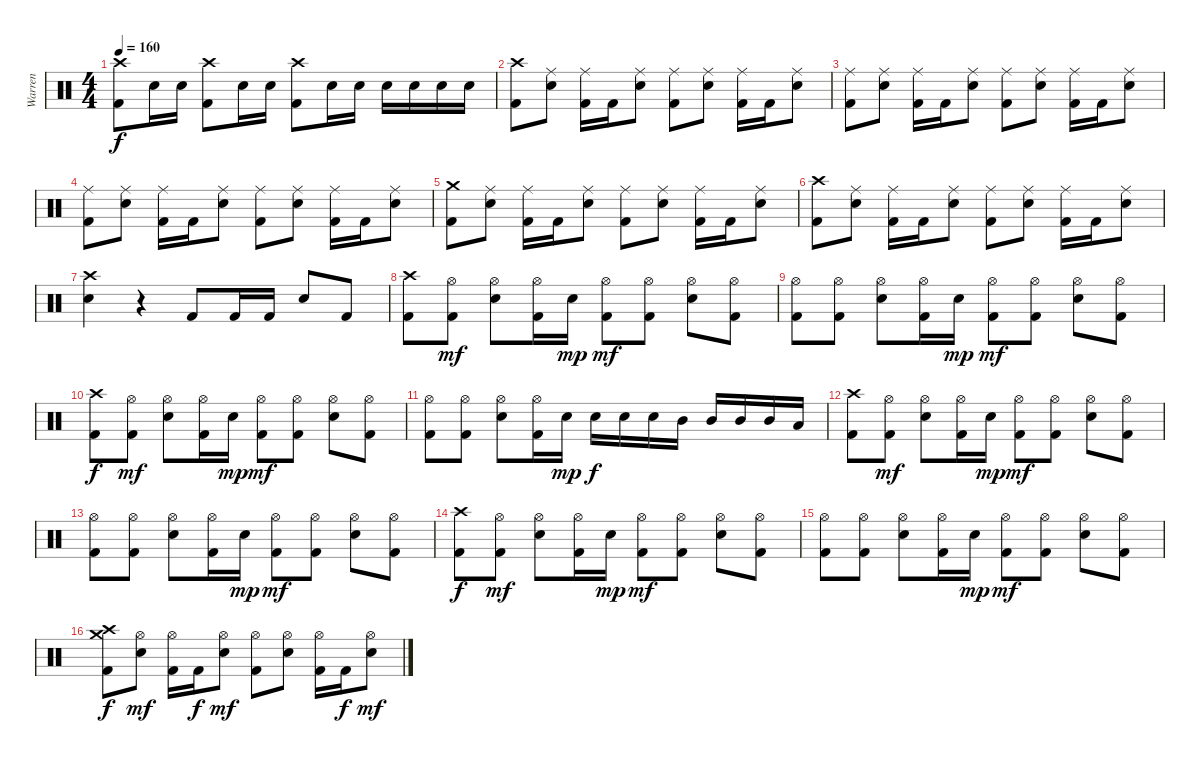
\track ("Warren" "Warren") {instrument percussion}
\staff {score}
\articulation defaults
\ts (4 4)
\tempo 160
\clef neutral
\ks c
("Crash high (hit)" "Kick (hit) 2").8{dy f} "Electric Snare (hit)".16 "Electric Snare (hit)".16 ("Crash high (hit)" "Kick (hit) 2").8 "Electric Snare (hit)".16 "Electric Snare (hit)".16 ("Crash high (hit)" "Kick (hit) 2").8 "Electric Snare (hit)".16 "Electric Snare (hit)".16 "Electric Snare (hit)".16 "Electric Snare (hit)".16 "Electric Snare (hit)".16 "Electric Snare (hit)".16 |
("Crash high (hit)" "Kick (hit) 2").8 ("Ride (middle)" "Electric Snare (hit)").8 ("Ride (middle)" "Kick (hit) 2").16 "Kick (hit) 2".16 ("Ride (middle)" "Electric Snare (hit)").8 ("Ride (middle)" "Kick (hit) 2").8 ("Ride (middle)" "Electric Snare (hit)").8 ("Ride (middle)" "Kick (hit) 2").16 "Kick (hit) 2".16 ("Ride (middle)" "Electric Snare (hit)").8 |
("Ride (middle)" "Kick (hit) 2").8 ("Ride (middle)" "Electric Snare (hit)").8 ("Ride (middle)" "Kick (hit) 2").16 "Kick (hit) 2".16 ("Ride (middle)" "Electric Snare (hit)").8 ("Ride (middle)" "Kick (hit) 2").8 ("Ride (middle)" "Electric Snare (hit)").8 ("Ride (middle)" "Kick (hit) 2").16 "Kick (hit) 2".16 ("Ride (middle)" "Electric Snare (hit)").8 |
("Ride (middle)" "Kick (hit) 2").8 ("Ride (middle)" "Electric Snare (hit)").8 ("Ride (middle)" "Kick (hit) 2").16 "Kick (hit) 2".16 ("Ride (middle)" "Electric Snare (hit)").8 ("Ride (middle)" "Kick (hit) 2").8 ("Ride (middle)" "Electric Snare (hit)").8 ("Ride (middle)" "Kick (hit) 2").16 "Kick (hit) 2".16 ("Ride (middle)" "Electric Snare (hit)").8 |
("Crash medium (hit)" "Kick (hit) 2").8 ("Ride (middle)" "Electric Snare (hit)").8 ("Ride (middle)" "Kick (hit) 2").16 "Kick (hit) 2".16 ("Ride (middle)" "Electric Snare (hit)").8 ("Ride (middle)" "Kick (hit) 2").8 ("Ride (middle)" "Electric Snare (hit)").8 ("Ride (middle)" "Kick (hit) 2").16 "Kick (hit) 2".16 ("Ride (middle)" "Electric Snare (hit)").8 |
("Crash high (hit)" "Kick (hit) 2").8 ("Ride (middle)" "Electric Snare (hit)").8 ("Ride (middle)" "Kick (hit) 2").16 "Kick (hit) 2".16 ("Ride (middle)" "Electric Snare (hit)").8 ("Ride (middle)" "Kick (hit) 2").8 ("Ride (middle)" "Electric Snare (hit)").8 ("Ride (middle)" "Kick (hit) 2").16 "Kick (hit) 2".16 ("Ride (middle)" "Electric Snare (hit)").8 |
("Crash high (hit)" "Electric Snare (hit)").4 r.4 "Kick (hit) 2".8 "Kick (hit) 2".16 "Kick (hit) 2".16 "Electric Snare (hit)".8 "Kick (hit) 2".8 |
("Crash high (hit)" "Kick (hit) 2").8 ("Hi-Hat (open)" "Kick (hit) 2").8{dy mf} ("Hi-Hat (open)" "Electric Snare (hit)").8 ("Hi-Hat (open)" "Kick (hit) 2").16 "Electric Snare (hit)".16{dy mp} ("Hi-Hat (open)" "Kick (hit) 2").8{dy mf} ("Hi-Hat (open)" "Kick (hit) 2").8 ("Hi-Hat (open)" "Electric Snare (hit)").8 ("Hi-Hat (open)" "Kick (hit) 2").8 |
("Hi-Hat (open)" "Kick (hit) 2").8 ("Hi-Hat (open)" "Kick (hit) 2").8 ("Hi-Hat (open)" "Electric Snare (hit)").8 ("Hi-Hat (open)" "Kick (hit) 2").16 "Electric Snare (hit)".16{dy mp} ("Hi-Hat (open)" "Kick (hit) 2").8{dy mf} ("Hi-Hat (open)" "Kick (hit) 2").8 ("Hi-Hat (open)" "Electric Snare (hit)").8 ("Hi-Hat (open)" "Kick (hit) 2").8 |
("Crash high (hit)" "Kick (hit) 2").8{dy f} ("Hi-Hat (open)" "Kick (hit) 2").8{dy mf} ("Hi-Hat (open)" "Electric Snare (hit)").8 ("Hi-Hat (open)" "Kick (hit) 2").16 "Electric Snare (hit)".16{dy mp} ("Hi-Hat (open)" "Kick (hit) 2").8{dy mf} ("Hi-Hat (open)" "Kick (hit) 2").8 ("Hi-Hat (open)" "Electric Snare (hit)").8 ("Hi-Hat (open)" "Kick (hit) 2").8 |
("Hi-Hat (open)" "Kick (hit) 2").8 ("Hi-Hat (open)" "Kick (hit) 2").8 ("Hi-Hat (open)" "Electric Snare (hit)").8 ("Hi-Hat (open)" "Kick (hit) 2").16 "Electric Snare (hit)".16{dy mp} "Electric Snare (hit)".16{dy f} "Electric Snare (hit)".16 "Electric Snare (hit)".16 "Mid Tom (hit)".16 "Mid Tom (hit)".16 "Mid Tom (hit)".16 "Mid Tom (hit)".16 "Low Tom (hit)".16 |
("Crash high (hit)" "Kick (hit) 2").8 ("Hi-Hat (open)" "Kick (hit) 2").8{dy mf} ("Hi-Hat (open)" "Electric Snare (hit)").8 ("Hi-Hat (open)" "Kick (hit) 2").16 "Electric Snare (hit)".16{dy mp} ("Hi-Hat (open)" "Kick (hit) 2").8{dy mf} ("Hi-Hat (open)" "Kick (hit) 2").8 ("Hi-Hat (open)" "Electric Snare (hit)").8 ("Hi-Hat (open)" "Kick (hit) 2").8 |
("Hi-Hat (open)" "Kick (hit) 2").8 ("Hi-Hat (open)" "Kick (hit) 2").8 ("Hi-Hat (open)" "Electric Snare (hit)").8 ("Hi-Hat (open)" "Kick (hit) 2").16 "Electric Snare (hit)".16{dy mp} ("Hi-Hat (open)" "Kick (hit) 2").8{dy mf} ("Hi-Hat (open)" "Kick (hit) 2").8 ("Hi-Hat (open)" "Electric Snare (hit)").8 ("Hi-Hat (open)" "Kick (hit) 2").8 |
("Crash high (hit)" "Kick (hit) 2").8{dy f} ("Hi-Hat (open)" "Kick (hit) 2").8{dy mf} ("Hi-Hat (open)" "Electric Snare (hit)").8 ("Hi-Hat (open)" "Kick (hit) 2").16 "Electric Snare (hit)".16{dy mp} ("Hi-Hat (open)" "Kick (hit) 2").8{dy mf} ("Hi-Hat (open)" "Kick (hit) 2").8 ("Hi-Hat (open)" "Electric Snare (hit)").8 ("Hi-Hat (open)" "Kick (hit) 2").8 |
("Hi-Hat (open)" "Kick (hit) 2").8 ("Hi-Hat (open)" "Kick (hit) 2").8 ("Hi-Hat (open)" "Electric Snare (hit)").8 ("Hi-Hat (open)" "Kick (hit) 2").16 "Electric Snare (hit)".16{dy mp} ("Hi-Hat (open)" "Kick (hit) 2").8{dy mf} ("Hi-Hat (open)" "Kick (hit) 2").8 ("Hi-Hat (open)" "Electric Snare (hit)").8 ("Hi-Hat (open)" "Kick (hit) 2").8 |
("Crash high (hit)" "Crash medium (hit)" "Kick (hit) 2").8{dy f} ("Hi-Hat (open)" "Electric Snare (hit)").8{dy mf} ("Hi-Hat (open)" "Kick (hit) 2").16 "Kick (hit) 2".16{dy f} ("Hi-Hat (open)" "Electric Snare (hit)").8{dy mf} ("Hi-Hat (open)" "Kick (hit) 2").8 ("Hi-Hat (open)" "Electric Snare (hit)").8 ("Hi-Hat (open)" "Kick (hit) 2").16 "Kick (hit) 2".16{dy f} ("Hi-Hat (open)" "Electric Snare (hit)").8{dy mf}
